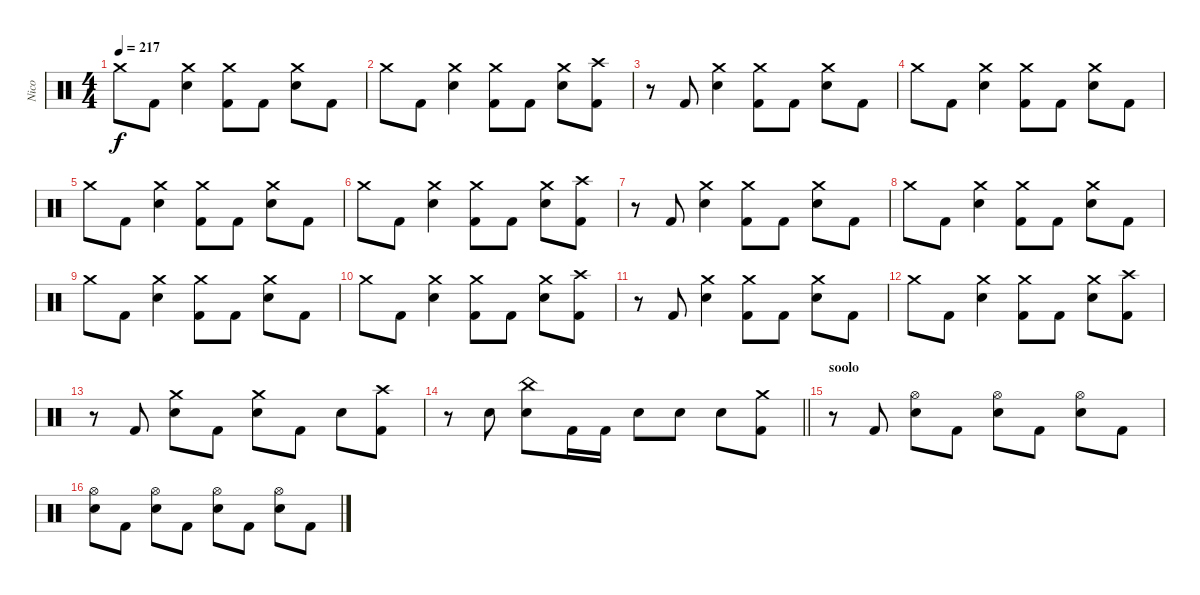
\track ("Nico" "Nico") {instrument percussion}
\staff {score}
\articulation defaults
\ts (4 4)
\tempo 217
\clef neutral
\ks c "Crash medium (hit)".8{dy f} "Kick (hit) 2".8
("Crash medium (hit)" "Electric Snare (hit)").4 ("Crash medium (hit)" "Kick (hit) 2").8 "Kick (hit) 2".8 ("Crash medium (hit)" "Electric Snare (hit)").8 "Kick (hit) 2".8 |
"Crash medium (hit)".8 "Kick (hit) 2".8 ("Crash medium (hit)" "Electric Snare (hit)").4 ("Crash medium (hit)" "Kick (hit) 2").8 "Kick (hit) 2".8 ("Crash medium (hit)" "Electric Snare (hit)").8 ("Crash high (hit)" "Kick (hit) 2").8 |
r.8 "Kick (hit) 2".8 ("Crash medium (hit)" "Electric Snare (hit)").4 ("Crash medium (hit)" "Kick (hit) 2").8 "Kick (hit) 2".8 ("Crash medium (hit)" "Electric Snare (hit)").8 "Kick (hit) 2".8 |
"Crash medium (hit)".8 "Kick (hit) 2".8 ("Crash medium (hit)" "Electric Snare (hit)").4 ("Crash medium (hit)" "Kick (hit) 2").8 "Kick (hit) 2".8 ("Crash medium (hit)" "Electric Snare (hit)").8 "Kick (hit) 2".8 |
"Crash medium (hit)".8 "Kick (hit) 2".8 ("Crash medium (hit)" "Electric Snare (hit)").4 ("Crash medium (hit)" "Kick (hit) 2").8 "Kick (hit) 2".8 ("Crash medium (hit)" "Electric Snare (hit)").8 "Kick (hit) 2".8 |
"Crash medium (hit)".8 "Kick (hit) 2".8 ("Crash medium (hit)" "Electric Snare (hit)").4 ("Crash medium (hit)" "Kick (hit) 2").8 "Kick (hit) 2".8 ("Crash medium (hit)" "Electric Snare (hit)").8 ("Crash high (hit)" "Kick (hit) 2").8 |
r.8 "Kick (hit) 2".8 ("Crash medium (hit)" "Electric Snare (hit)").4 ("Crash medium (hit)" "Kick (hit) 2").8 "Kick (hit) 2".8 ("Crash medium (hit)" "Electric Snare (hit)").8 "Kick (hit) 2".8 |
"Crash medium (hit)".8 "Kick (hit) 2".8 ("Crash medium (hit)" "Electric Snare (hit)").4 ("Crash medium (hit)" "Kick (hit) 2").8 "Kick (hit) 2".8 ("Crash medium (hit)" "Electric Snare (hit)").8 "Kick (hit) 2".8 |
"Crash medium (hit)".8 "Kick (hit) 2".8 ("Crash medium (hit)" "Electric Snare (hit)").4 ("Crash medium (hit)" "Kick (hit) 2").8 "Kick (hit) 2".8 ("Crash medium (hit)" "Electric Snare (hit)").8 "Kick (hit) 2".8 |
"Crash medium (hit)".8 "Kick (hit) 2".8 ("Crash medium (hit)" "Electric Snare (hit)").4 ("Crash medium (hit)" "Kick (hit) 2").8 "Kick (hit) 2".8 ("Crash medium (hit)" "Electric Snare (hit)").8 ("Crash high (hit)" "Kick (hit) 2").8 |
r.8 "Kick (hit) 2".8 ("Crash medium (hit)" "Electric Snare (hit)").4 ("Crash medium (hit)" "Kick (hit) 2").8 "Kick (hit) 2".8 ("Crash medium (hit)" "Electric Snare (hit)").8 "Kick (hit) 2".8 |
"Crash medium (hit)".8 "Kick (hit) 2".8 ("Crash medium (hit)" "Electric Snare (hit)").4 ("Crash medium (hit)" "Kick (hit) 2").8 "Kick (hit) 2".8 ("Crash medium (hit)" "Electric Snare (hit)").8 ("Crash high (hit)" "Kick (hit) 2").8 |
r.8 "Kick (hit) 2".8 ("Crash medium (hit)" "Electric Snare (hit)").8 "Kick (hit) 2".8 ("Crash medium (hit)" "Electric Snare (hit)").8 "Kick (hit) 2".8 "Electric Snare (hit)".8 ("Crash high (hit)" "Kick (hit) 2").8 |
\barLineRight lightlight
r.8 "Electric Snare (hit)".8 ("China (hit)" "Electric Snare (hit)").8 "Kick (hit) 2".16 "Kick (hit) 2".16 "Electric Snare (hit)".8 "Electric Snare (hit)".8 "Electric Snare (hit)".8 ("Crash medium (hit)" "Kick (hit) 2").8 |
\section ("" "soolo")
r.8 "Kick (hit) 2".8 ("Hi-Hat (open)" "Electric Snare (hit)").8 "Kick (hit) 2".8 ("Hi-Hat (open)" "Electric Snare (hit)").8 "Kick (hit) 2".8 ("Hi-Hat (open)" "Electric Snare (hit)").8 "Kick (hit) 2".8 |
("Hi-Hat (open)" "Electric Snare (hit)").8 "Kick (hit) 2".8 ("Hi-Hat (open)" "Electric Snare (hit)").8 "Kick (hit) 2".8 ("Hi-Hat (open)" "Electric Snare (hit)").8 "Kick (hit) 2".8 ("Hi-Hat (open)" "Electric Snare (hit)").8 "Kick (hit) 2".8
